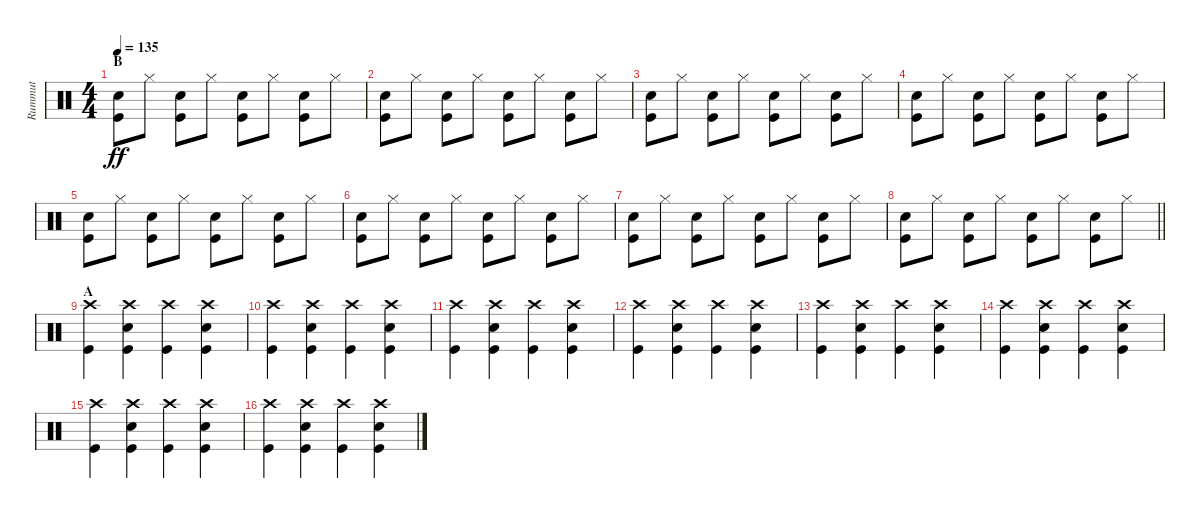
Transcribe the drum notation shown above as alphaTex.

\track ("Rummut" "Rummut") {instrument percussion}
\staff {score}
\articulation defaults
\ts (4 4)
\section ("" "B")
\tempo 135
\clef neutral
\ks c
("Electric Snare (hit)" "Kick (hit)").8{dy ff} "Hi-Hat (closed)".8 ("Electric Snare (hit)" "Kick (hit)").8 "Hi-Hat (closed)".8 ("Electric Snare (hit)" "Kick (hit)").8 "Hi-Hat (closed)".8 ("Electric Snare (hit)" "Kick (hit)").8 "Hi-Hat (closed)".8 |
("Electric Snare (hit)" "Kick (hit)").8 "Hi-Hat (closed)".8 ("Electric Snare (hit)" "Kick (hit)").8 "Hi-Hat (closed)".8 ("Electric Snare (hit)" "Kick (hit)").8 "Hi-Hat (closed)".8 ("Electric Snare (hit)" "Kick (hit)").8 "Hi-Hat (closed)".8 |
("Electric Snare (hit)" "Kick (hit)").8 "Hi-Hat (closed)".8 ("Electric Snare (hit)" "Kick (hit)").8 "Hi-Hat (closed)".8 ("Electric Snare (hit)" "Kick (hit)").8 "Hi-Hat (closed)".8 ("Electric Snare (hit)" "Kick (hit)").8 "Hi-Hat (closed)".8 |
("Electric Snare (hit)" "Kick (hit)").8 "Hi-Hat (closed)".8 ("Electric Snare (hit)" "Kick (hit)").8 "Hi-Hat (closed)".8 ("Electric Snare (hit)" "Kick (hit)").8 "Hi-Hat (closed)".8 ("Electric Snare (hit)" "Kick (hit)").8 "Hi-Hat (closed)".8 |
("Electric Snare (hit)" "Kick (hit)").8 "Hi-Hat (closed)".8 ("Electric Snare (hit)" "Kick (hit)").8 "Hi-Hat (closed)".8 ("Electric Snare (hit)" "Kick (hit)").8 "Hi-Hat (closed)".8 ("Electric Snare (hit)" "Kick (hit)").8 "Hi-Hat (closed)".8 |
("Electric Snare (hit)" "Kick (hit)").8 "Hi-Hat (closed)".8 ("Electric Snare (hit)" "Kick (hit)").8 "Hi-Hat (closed)".8 ("Electric Snare (hit)" "Kick (hit)").8 "Hi-Hat (closed)".8 ("Electric Snare (hit)" "Kick (hit)").8 "Hi-Hat (closed)".8 |
("Electric Snare (hit)" "Kick (hit)").8 "Hi-Hat (closed)".8 ("Electric Snare (hit)" "Kick (hit)").8 "Hi-Hat (closed)".8 ("Electric Snare (hit)" "Kick (hit)").8 "Hi-Hat (closed)".8 ("Electric Snare (hit)" "Kick (hit)").8 "Hi-Hat (closed)".8 |
\barLineRight lightlight
("Electric Snare (hit)" "Kick (hit)").8 "Hi-Hat (closed)".8 ("Electric Snare (hit)" "Kick (hit)").8 "Hi-Hat (closed)".8 ("Electric Snare (hit)" "Kick (hit)").8 "Hi-Hat (closed)".8 ("Electric Snare (hit)" "Kick (hit)").8 "Hi-Hat (closed)".8 |
\section ("" "A")
("Crash high (hit)" "Kick (hit)").4 ("Crash high (hit)" "Electric Snare (hit)" "Kick (hit)").4 ("Crash high (hit)" "Kick (hit)").4 ("Crash high (hit)" "Electric Snare (hit)" "Kick (hit)").4 |
("Crash high (hit)" "Kick (hit)").4 ("Crash high (hit)" "Electric Snare (hit)" "Kick (hit)").4 ("Crash high (hit)" "Kick (hit)").4 ("Crash high (hit)" "Electric Snare (hit)" "Kick (hit)").4 |
("Crash high (hit)" "Kick (hit)").4 ("Crash high (hit)" "Electric Snare (hit)" "Kick (hit)").4 ("Crash high (hit)" "Kick (hit)").4 ("Crash high (hit)" "Electric Snare (hit)" "Kick (hit)").4 |
("Crash high (hit)" "Kick (hit)").4 ("Crash high (hit)" "Electric Snare (hit)" "Kick (hit)").4 ("Crash high (hit)" "Kick (hit)").4 ("Crash high (hit)" "Electric Snare (hit)" "Kick (hit)").4 |
("Crash high (hit)" "Kick (hit)").4 ("Crash high (hit)" "Electric Snare (hit)" "Kick (hit)").4 ("Crash high (hit)" "Kick (hit)").4 ("Crash high (hit)" "Electric Snare (hit)" "Kick (hit)").4 |
("Crash high (hit)" "Kick (hit)").4 ("Crash high (hit)" "Electric Snare (hit)" "Kick (hit)").4 ("Crash high (hit)" "Kick (hit)").4 ("Crash high (hit)" "Electric Snare (hit)" "Kick (hit)").4 |
("Crash high (hit)" "Kick (hit)").4 ("Crash high (hit)" "Electric Snare (hit)" "Kick (hit)").4 ("Crash high (hit)" "Kick (hit)").4 ("Crash high (hit)" "Electric Snare (hit)" "Kick (hit)").4 |
("Crash high (hit)" "Kick (hit)").4 ("Crash high (hit)" "Electric Snare (hit)" "Kick (hit)").4 ("Crash high (hit)" "Kick (hit)").4 ("Crash high (hit)" "Electric Snare (hit)" "Kick (hit)").4
